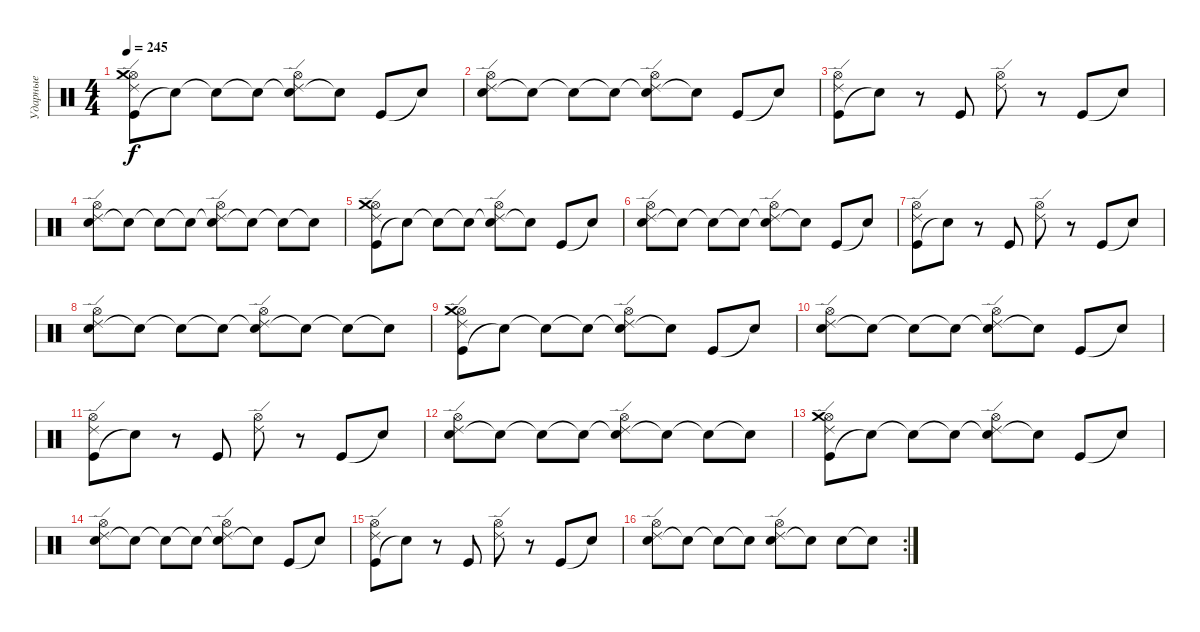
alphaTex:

\track ("Ударные" "Ударные") {instrument percussion}
\staff {score}
\articulation defaults
\ts (4 4)
\tempo 245
\clef neutral
\ks c
("Kick (hit)" "Ride (edge) 2" "Hi-Hat (open)" "Crash medium (hit)").8{dy f} "Snare (hit)"{t}.8 "Snare (hit)"{t}.8 "Snare (hit)"{t}.8 ("Snare (hit)"{t} "Ride (edge) 2" "Hi-Hat (open)").8 "Snare (hit)"{t}.8 "Kick (hit)".8 "Snare (hit)"{t}.8 |
("Electric Snare (hit)" "Ride (edge) 2" "Hi-Hat (open)").8 "Snare (hit)"{t}.8 "Snare (hit)"{t}.8 "Snare (hit)"{t}.8 ("Snare (hit)"{t} "Ride (edge) 2" "Hi-Hat (open)").8 "Snare (hit)"{t}.8 "Kick (hit)".8 "Snare (hit)"{t}.8 |
("Kick (hit)" "Ride (edge) 2" "Hi-Hat (open)").8 "Snare (hit)"{t}.8 r.8 "Kick (hit)".8 ("Ride (edge) 2" "Hi-Hat (open)").8 r.8 "Kick (hit)".8 "Snare (hit)"{t}.8 |
("Electric Snare (hit)" "Ride (edge) 2" "Hi-Hat (open)").8 "Snare (hit)"{t}.8 "Snare (hit)"{t}.8 "Snare (hit)"{t}.8 ("Snare (hit)"{t} "Ride (edge) 2" "Hi-Hat (open)").8 "Snare (hit)"{t}.8 "Snare (hit)"{t}.8 "Snare (hit)"{t}.8 |
("Kick (hit)" "Ride (edge) 2" "Hi-Hat (open)" "Crash medium (hit)").8 "Snare (hit)"{t}.8 "Snare (hit)"{t}.8 "Snare (hit)"{t}.8 ("Snare (hit)"{t} "Ride (edge) 2" "Hi-Hat (open)").8 "Snare (hit)"{t}.8 "Kick (hit)".8 "Snare (hit)"{t}.8 |
("Electric Snare (hit)" "Ride (edge) 2" "Hi-Hat (open)").8 "Snare (hit)"{t}.8 "Snare (hit)"{t}.8 "Snare (hit)"{t}.8 ("Snare (hit)"{t} "Ride (edge) 2" "Hi-Hat (open)").8 "Snare (hit)"{t}.8 "Kick (hit)".8 "Snare (hit)"{t}.8 |
("Kick (hit)" "Ride (edge) 2" "Hi-Hat (open)").8 "Snare (hit)"{t}.8 r.8 "Kick (hit)".8 ("Ride (edge) 2" "Hi-Hat (open)").8 r.8 "Kick (hit)".8 "Snare (hit)"{t}.8 |
("Electric Snare (hit)" "Ride (edge) 2" "Hi-Hat (open)").8 "Snare (hit)"{t}.8 "Snare (hit)"{t}.8 "Snare (hit)"{t}.8 ("Snare (hit)"{t} "Ride (edge) 2" "Hi-Hat (open)").8 "Snare (hit)"{t}.8 "Snare (hit)"{t}.8 "Snare (hit)"{t}.8 |
("Kick (hit)" "Ride (edge) 2" "Hi-Hat (open)" "Crash medium (hit)").8 "Snare (hit)"{t}.8 "Snare (hit)"{t}.8 "Snare (hit)"{t}.8 ("Snare (hit)"{t} "Ride (edge) 2" "Hi-Hat (open)").8 "Snare (hit)"{t}.8 "Kick (hit)".8 "Snare (hit)"{t}.8 |
("Electric Snare (hit)" "Ride (edge) 2" "Hi-Hat (open)").8 "Snare (hit)"{t}.8 "Snare (hit)"{t}.8 "Snare (hit)"{t}.8 ("Snare (hit)"{t} "Ride (edge) 2" "Hi-Hat (open)").8 "Snare (hit)"{t}.8 "Kick (hit)".8 "Snare (hit)"{t}.8 |
("Kick (hit)" "Ride (edge) 2" "Hi-Hat (open)").8 "Snare (hit)"{t}.8 r.8 "Kick (hit)".8 ("Ride (edge) 2" "Hi-Hat (open)").8 r.8 "Kick (hit)".8 "Snare (hit)"{t}.8 |
("Electric Snare (hit)" "Ride (edge) 2" "Hi-Hat (open)").8 "Snare (hit)"{t}.8 "Snare (hit)"{t}.8 "Snare (hit)"{t}.8 ("Snare (hit)"{t} "Ride (edge) 2" "Hi-Hat (open)").8 "Snare (hit)"{t}.8 "Snare (hit)"{t}.8 "Snare (hit)"{t}.8 |
("Kick (hit)" "Ride (edge) 2" "Hi-Hat (open)" "Crash medium (hit)").8 "Snare (hit)"{t}.8 "Snare (hit)"{t}.8 "Snare (hit)"{t}.8 ("Snare (hit)"{t} "Ride (edge) 2" "Hi-Hat (open)").8 "Snare (hit)"{t}.8 "Kick (hit)".8 "Snare (hit)"{t}.8 |
("Electric Snare (hit)" "Ride (edge) 2" "Hi-Hat (open)").8 "Snare (hit)"{t}.8 "Snare (hit)"{t}.8 "Snare (hit)"{t}.8 ("Snare (hit)"{t} "Ride (edge) 2" "Hi-Hat (open)").8 "Snare (hit)"{t}.8 "Kick (hit)".8 "Snare (hit)"{t}.8 |
("Kick (hit)" "Ride (edge) 2" "Hi-Hat (open)").8 "Snare (hit)"{t}.8 r.8 "Kick (hit)".8 ("Ride (edge) 2" "Hi-Hat (open)").8 r.8 "Kick (hit)".8 "Snare (hit)"{t}.8 |
\rc 2
("Electric Snare (hit)" "Ride (edge) 2" "Hi-Hat (open)").8 "Snare (hit)"{t}.8 "Snare (hit)"{t}.8 "Snare (hit)"{t}.8 ("Electric Snare (hit)" "Ride (edge) 2" "Hi-Hat (open)").8 "Snare (hit)"{t}.8 "Electric Snare (hit)".8 "Snare (hit)"{t}.8
